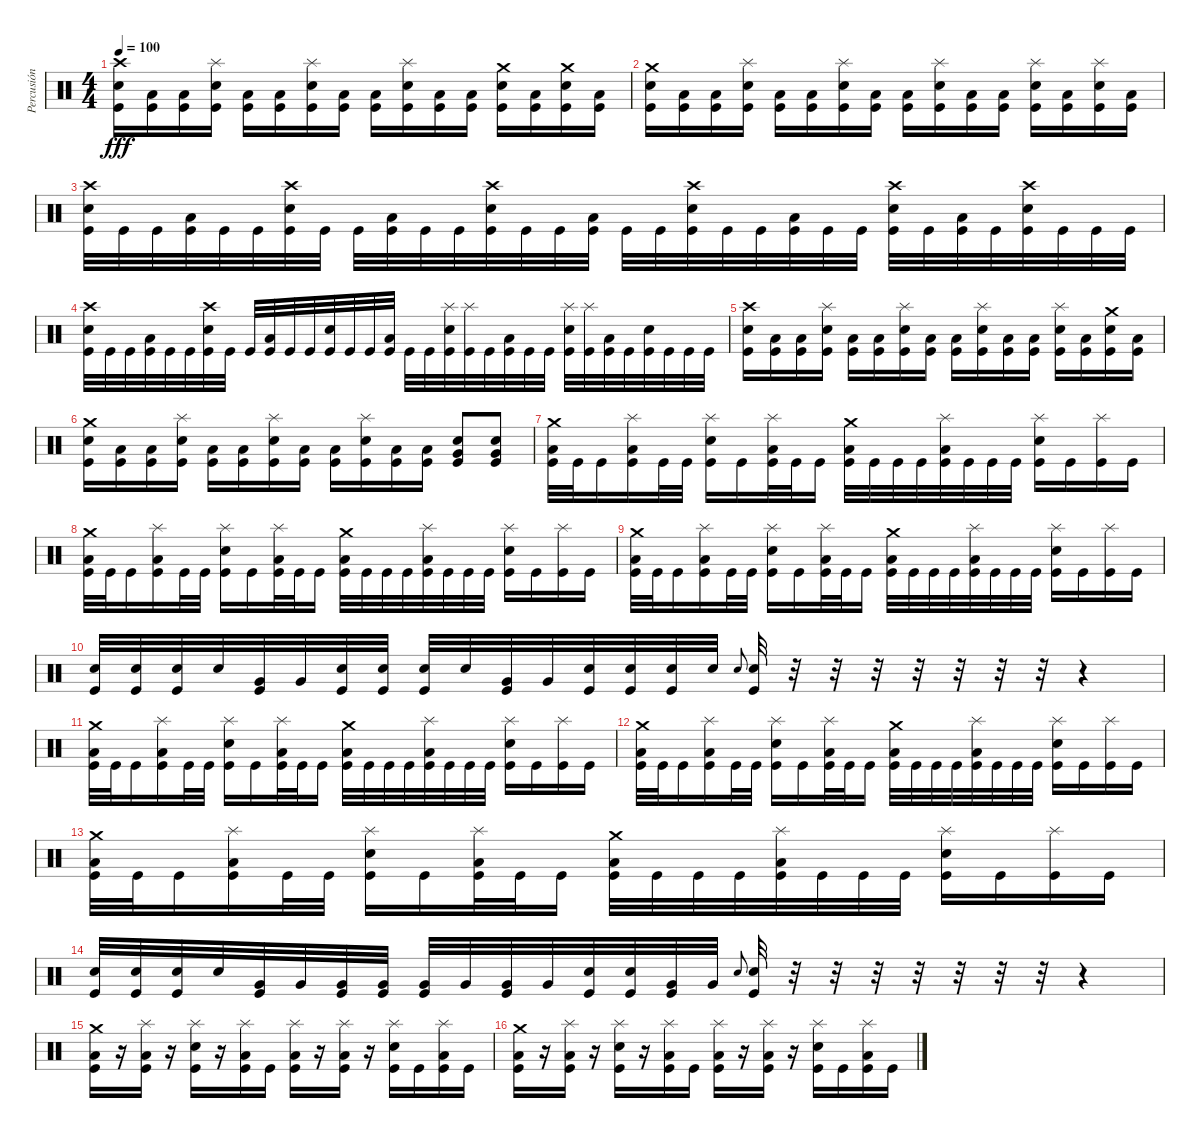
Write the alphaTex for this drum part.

\track ("Percusión" "Percusión") {instrument percussion}
\staff {score}
\articulation defaults
\ts (4 4)
\tempo 100
\clef neutral
\ks c
("Crash high (hit)" "Snare (hit) 2" "Kick (hit)").16{dy fff} ("Low Floor Tom (hit)" "Kick (hit)").16 ("Low Floor Tom (hit)" "Kick (hit)").16 ("Splash (hit)" "Snare (hit) 2" "Kick (hit)").16 ("Low Floor Tom (hit)" "Kick (hit)").16 ("Low Floor Tom (hit)" "Kick (hit)").16 ("Splash (hit)" "Snare (hit) 2" "Kick (hit)").16 ("Low Floor Tom (hit)" "Kick (hit)").16 ("Low Floor Tom (hit)" "Kick (hit)").16 ("Splash (hit)" "Snare (hit) 2" "Kick (hit)").16 ("Low Floor Tom (hit)" "Kick (hit)").16 ("Low Floor Tom (hit)" "Kick (hit)").16 ("Crash medium (hit)" "Snare (hit) 2" "Kick (hit)").16 ("Low Floor Tom (hit)" "Kick (hit)").16 ("Crash medium (hit)" "Snare (hit) 2" "Kick (hit)").16 ("Low Floor Tom (hit)" "Kick (hit)").16 |
("Crash medium (hit)" "Snare (hit) 2" "Kick (hit)").16 ("Low Floor Tom (hit)" "Kick (hit)").16 ("Low Floor Tom (hit)" "Kick (hit)").16 ("Splash (hit)" "Snare (hit) 2" "Kick (hit)").16 ("Low Floor Tom (hit)" "Kick (hit)").16 ("Low Floor Tom (hit)" "Kick (hit)").16 ("Splash (hit)" "Snare (hit) 2" "Kick (hit)").16 ("Low Floor Tom (hit)" "Kick (hit)").16 ("Low Floor Tom (hit)" "Kick (hit)").16 ("Splash (hit)" "Snare (hit) 2" "Kick (hit)").16 ("Low Floor Tom (hit)" "Kick (hit)").16 ("Low Floor Tom (hit)" "Kick (hit)").16 ("Splash (hit)" "Snare (hit) 2" "Kick (hit)").16 ("Low Floor Tom (hit)" "Kick (hit)").16 ("Splash (hit)" "Snare (hit) 2" "Kick (hit)").16 ("Low Floor Tom (hit)" "Kick (hit)").16 |
("Crash high (hit)" "Snare (hit) 2" "Kick (hit)").32 "Kick (hit)".32 "Kick (hit)".32 ("Low Floor Tom (hit)" "Kick (hit)").32 "Kick (hit)".32 "Kick (hit)".32 ("Crash high (hit)" "Snare (hit) 2" "Kick (hit)").32 "Kick (hit)".32 "Kick (hit)".32 ("Low Floor Tom (hit)" "Kick (hit)").32 "Kick (hit)".32 "Kick (hit)".32 ("Crash high (hit)" "Snare (hit) 2" "Kick (hit)").32 "Kick (hit)".32 "Kick (hit)".32 ("Low Floor Tom (hit)" "Kick (hit)").32 "Kick (hit)".32 "Kick (hit)".32 ("Crash high (hit)" "Snare (hit) 2" "Kick (hit)").32 "Kick (hit)".32 "Kick (hit)".32 ("Low Floor Tom (hit)" "Kick (hit)").32 "Kick (hit)".32 "Kick (hit)".32 ("Crash high (hit)" "Snare (hit) 2" "Kick (hit)").32 "Kick (hit)".32 ("Low Floor Tom (hit)" "Kick (hit)").32 "Kick (hit)".32 ("Crash high (hit)" "Snare (hit) 2" "Kick (hit)").32 "Kick (hit)".32 "Kick (hit)".32 "Kick (hit)".32 |
("Crash high (hit)" "Snare (hit) 2" "Kick (hit)").32 "Kick (hit)".32 "Kick (hit)".32 ("Low Floor Tom (hit)" "Kick (hit)").32 "Kick (hit)".32 "Kick (hit)".32 ("Crash high (hit)" "Snare (hit) 2" "Kick (hit)").32 "Kick (hit)".32 "Kick (hit)".32 ("Low Floor Tom (hit)" "Kick (hit)").32 "Kick (hit)".32 "Kick (hit)".32 ("Snare (hit) 2" "Kick (hit)").32 "Kick (hit)".32 "Kick (hit)".32 ("Low Floor Tom (hit)" "Kick (hit)").32 "Kick (hit)".32 "Kick (hit)".32 ("Splash (hit)" "Snare (hit) 2" "Kick (hit)").32 ("Splash (hit)" "Kick (hit)").32 "Kick (hit)".32 ("Low Floor Tom (hit)" "Kick (hit)").32 "Kick (hit)".32 "Kick (hit)".32 ("Splash (hit)" "Snare (hit) 2" "Kick (hit)").32 ("Splash (hit)" "Kick (hit)").32 ("Low Floor Tom (hit)" "Kick (hit)").32 "Kick (hit)".32 ("Snare (hit) 2" "Kick (hit)").32 "Kick (hit)".32 "Kick (hit)".32 "Kick (hit)".32 |
("Crash high (hit)" "Snare (hit) 2" "Kick (hit)").16 ("Low Floor Tom (hit)" "Kick (hit)").16 ("Low Floor Tom (hit)" "Kick (hit)").16 ("Splash (hit)" "Snare (hit) 2" "Kick (hit)").16 ("Low Floor Tom (hit)" "Kick (hit)").16 ("Low Floor Tom (hit)" "Kick (hit)").16 ("Splash (hit)" "Snare (hit) 2" "Kick (hit)").16 ("Low Floor Tom (hit)" "Kick (hit)").16 ("Low Floor Tom (hit)" "Kick (hit)").16 ("Splash (hit)" "Snare (hit) 2" "Kick (hit)").16 ("Low Floor Tom (hit)" "Kick (hit)").16 ("Low Floor Tom (hit)" "Kick (hit)").16 ("Splash (hit)" "Snare (hit) 2" "Kick (hit)").16 ("Low Floor Tom (hit)" "Kick (hit)").16 ("Crash medium (hit)" "Snare (hit) 2" "Kick (hit)").16 ("Low Floor Tom (hit)" "Kick (hit)").16 |
("Crash medium (hit)" "Snare (hit) 2" "Kick (hit)").16 ("Low Floor Tom (hit)" "Kick (hit)").16 ("Low Floor Tom (hit)" "Kick (hit)").16 ("Splash (hit)" "Snare (hit) 2" "Kick (hit)").16 ("Low Floor Tom (hit)" "Kick (hit)").16 ("Low Floor Tom (hit)" "Kick (hit)").16 ("Splash (hit)" "Snare (hit) 2" "Kick (hit)").16 ("Low Floor Tom (hit)" "Kick (hit)").16 ("Low Floor Tom (hit)" "Kick (hit)").16 ("Splash (hit)" "Snare (hit) 2" "Kick (hit)").16 ("Low Floor Tom (hit)" "Kick (hit)").16 ("Low Floor Tom (hit)" "Kick (hit)").16 ("Snare (hit) 2" "Very Low Tom (hit)" "Kick (hit)").8 ("Snare (hit) 2" "Very Low Tom (hit)" "Kick (hit)").8 |
("Crash medium (hit)" "Low Floor Tom (hit)" "Kick (hit)").32 "Kick (hit)".32 "Kick (hit)".16 ("Splash (hit)" "Low Floor Tom (hit)" "Kick (hit)").16 "Kick (hit)".32 "Kick (hit)".32 ("Splash (hit)" "Snare (hit) 2" "Kick (hit)").16 "Kick (hit)".16 ("Splash (hit)" "Low Floor Tom (hit)" "Kick (hit)").32 "Kick (hit)".32 "Kick (hit)".16 ("Crash medium (hit)" "Low Floor Tom (hit)" "Kick (hit)").32 "Kick (hit)".32 "Kick (hit)".32 "Kick (hit)".32 ("Splash (hit)" "Low Floor Tom (hit)" "Kick (hit)").32 "Kick (hit)".32 "Kick (hit)".32 "Kick (hit)".32 ("Splash (hit)" "Snare (hit) 2" "Kick (hit)").16 "Kick (hit)".16 ("Splash (hit)" "Kick (hit)").16 "Kick (hit)".16 |
("Crash medium (hit)" "Low Floor Tom (hit)" "Kick (hit)").32 "Kick (hit)".32 "Kick (hit)".16 ("Splash (hit)" "Low Floor Tom (hit)" "Kick (hit)").16 "Kick (hit)".32 "Kick (hit)".32 ("Splash (hit)" "Snare (hit) 2" "Kick (hit)").16 "Kick (hit)".16 ("Splash (hit)" "Low Floor Tom (hit)" "Kick (hit)").32 "Kick (hit)".32 "Kick (hit)".16 ("Crash medium (hit)" "Low Floor Tom (hit)" "Kick (hit)").32 "Kick (hit)".32 "Kick (hit)".32 "Kick (hit)".32 ("Splash (hit)" "Low Floor Tom (hit)" "Kick (hit)").32 "Kick (hit)".32 "Kick (hit)".32 "Kick (hit)".32 ("Splash (hit)" "Snare (hit) 2" "Kick (hit)").16 "Kick (hit)".16 ("Splash (hit)" "Kick (hit)").16 "Kick (hit)".16 |
("Crash medium (hit)" "Low Floor Tom (hit)" "Kick (hit)").32 "Kick (hit)".32 "Kick (hit)".16 ("Splash (hit)" "Low Floor Tom (hit)" "Kick (hit)").16 "Kick (hit)".32 "Kick (hit)".32 ("Splash (hit)" "Snare (hit) 2" "Kick (hit)").16 "Kick (hit)".16 ("Splash (hit)" "Low Floor Tom (hit)" "Kick (hit)").32 "Kick (hit)".32 "Kick (hit)".16 ("Crash medium (hit)" "Low Floor Tom (hit)" "Kick (hit)").32 "Kick (hit)".32 "Kick (hit)".32 "Kick (hit)".32 ("Splash (hit)" "Low Floor Tom (hit)" "Kick (hit)").32 "Kick (hit)".32 "Kick (hit)".32 "Kick (hit)".32 ("Splash (hit)" "Snare (hit) 2" "Kick (hit)").16 "Kick (hit)".16 ("Splash (hit)" "Kick (hit)").16 "Kick (hit)".16 |
("Snare (hit) 2" "Kick (hit)").32 ("Snare (hit) 2" "Kick (hit)").32 ("Snare (hit) 2" "Kick (hit)").32 "Snare (hit) 2".32 ("Very Low Tom (hit)" "Kick (hit)").32 "Very Low Tom (hit)".32 ("Snare (hit) 2" "Kick (hit)").32 ("Snare (hit) 2" "Kick (hit)").32 ("Snare (hit) 2" "Kick (hit)").32 "Snare (hit) 2".32 ("Very Low Tom (hit)" "Kick (hit)").32 "Very Low Tom (hit)".32 ("Snare (hit) 2" "Kick (hit)").32 ("Snare (hit) 2" "Kick (hit)").32 ("Snare (hit) 2" "Kick (hit)").32 "Snare (hit) 2".32 "Snare (hit) 2".8{gr onbeat} ("Snare (hit) 2" "Kick (hit)").32 r.32 r.32 r.32 r.32 r.32 r.32 r.32 r.4 |
("Crash medium (hit)" "Low Floor Tom (hit)" "Kick (hit)").32 "Kick (hit)".32 "Kick (hit)".16 ("Splash (hit)" "Low Floor Tom (hit)" "Kick (hit)").16 "Kick (hit)".32 "Kick (hit)".32 ("Splash (hit)" "Snare (hit) 2" "Kick (hit)").16 "Kick (hit)".16 ("Splash (hit)" "Low Floor Tom (hit)" "Kick (hit)").32 "Kick (hit)".32 "Kick (hit)".16 ("Crash medium (hit)" "Low Floor Tom (hit)" "Kick (hit)").32 "Kick (hit)".32 "Kick (hit)".32 "Kick (hit)".32 ("Splash (hit)" "Low Floor Tom (hit)" "Kick (hit)").32 "Kick (hit)".32 "Kick (hit)".32 "Kick (hit)".32 ("Splash (hit)" "Snare (hit) 2" "Kick (hit)").16 "Kick (hit)".16 ("Splash (hit)" "Kick (hit)").16 "Kick (hit)".16 |
("Crash medium (hit)" "Low Floor Tom (hit)" "Kick (hit)").32 "Kick (hit)".32 "Kick (hit)".16 ("Splash (hit)" "Low Floor Tom (hit)" "Kick (hit)").16 "Kick (hit)".32 "Kick (hit)".32 ("Splash (hit)" "Snare (hit) 2" "Kick (hit)").16 "Kick (hit)".16 ("Splash (hit)" "Low Floor Tom (hit)" "Kick (hit)").32 "Kick (hit)".32 "Kick (hit)".16 ("Crash medium (hit)" "Low Floor Tom (hit)" "Kick (hit)").32 "Kick (hit)".32 "Kick (hit)".32 "Kick (hit)".32 ("Splash (hit)" "Low Floor Tom (hit)" "Kick (hit)").32 "Kick (hit)".32 "Kick (hit)".32 "Kick (hit)".32 ("Splash (hit)" "Snare (hit) 2" "Kick (hit)").16 "Kick (hit)".16 ("Splash (hit)" "Kick (hit)").16 "Kick (hit)".16 |
("Crash medium (hit)" "Low Floor Tom (hit)" "Kick (hit)").32 "Kick (hit)".32 "Kick (hit)".16 ("Splash (hit)" "Low Floor Tom (hit)" "Kick (hit)").16 "Kick (hit)".32 "Kick (hit)".32 ("Splash (hit)" "Snare (hit) 2" "Kick (hit)").16 "Kick (hit)".16 ("Splash (hit)" "Low Floor Tom (hit)" "Kick (hit)").32 "Kick (hit)".32 "Kick (hit)".16 ("Crash medium (hit)" "Low Floor Tom (hit)" "Kick (hit)").32 "Kick (hit)".32 "Kick (hit)".32 "Kick (hit)".32 ("Splash (hit)" "Low Floor Tom (hit)" "Kick (hit)").32 "Kick (hit)".32 "Kick (hit)".32 "Kick (hit)".32 ("Splash (hit)" "Snare (hit) 2" "Kick (hit)").16 "Kick (hit)".16 ("Splash (hit)" "Kick (hit)").16 "Kick (hit)".16 |
("Snare (hit) 2" "Kick (hit)").32 ("Snare (hit) 2" "Kick (hit)").32 ("Snare (hit) 2" "Kick (hit)").32 "Snare (hit) 2".32 ("Very Low Tom (hit)" "Kick (hit)").32 "Very Low Tom (hit)".32 ("Very Low Tom (hit)" "Kick (hit)").32 ("Very Low Tom (hit)" "Kick (hit)").32 ("Very Low Tom (hit)" "Kick (hit)").32 "Very Low Tom (hit)".32 ("Very Low Tom (hit)" "Kick (hit)").32 "Very Low Tom (hit)".32 ("Snare (hit) 2" "Kick (hit)").32 ("Snare (hit) 2" "Kick (hit)").32 ("Very Low Tom (hit)" "Kick (hit)").32 "Very Low Tom (hit)".32 "Snare (hit) 2".8{gr onbeat} ("Snare (hit) 2" "Kick (hit)").32 r.32 r.32 r.32 r.32 r.32 r.32 r.32 r.4 |
("Crash medium (hit)" "Low Floor Tom (hit)" "Kick (hit)").16 r.16 ("Splash (hit)" "Low Floor Tom (hit)" "Kick (hit)").16 r.16 ("Splash (hit)" "Snare (hit) 2" "Kick (hit)").16 r.16 ("Splash (hit)" "Low Floor Tom (hit)" "Kick (hit)").16 "Kick (hit)".16 ("Splash (hit)" "Low Floor Tom (hit)" "Kick (hit)").16 r.16 ("Splash (hit)" "Low Floor Tom (hit)" "Kick (hit)").16 r.16 ("Splash (hit)" "Snare (hit) 2" "Kick (hit)").16 "Kick (hit)".16 ("Splash (hit)" "Low Floor Tom (hit)" "Kick (hit)").16 "Kick (hit)".16 |
("Crash medium (hit)" "Low Floor Tom (hit)" "Kick (hit)").16 r.16 ("Splash (hit)" "Low Floor Tom (hit)" "Kick (hit)").16 r.16 ("Splash (hit)" "Snare (hit) 2" "Kick (hit)").16 r.16 ("Splash (hit)" "Low Floor Tom (hit)" "Kick (hit)").16 "Kick (hit)".16 ("Splash (hit)" "Low Floor Tom (hit)" "Kick (hit)").16 r.16 ("Splash (hit)" "Low Floor Tom (hit)" "Kick (hit)").16 r.16 ("Splash (hit)" "Snare (hit) 2" "Kick (hit)").16 "Kick (hit)".16 ("Splash (hit)" "Low Floor Tom (hit)" "Kick (hit)").16 "Kick (hit)".16
